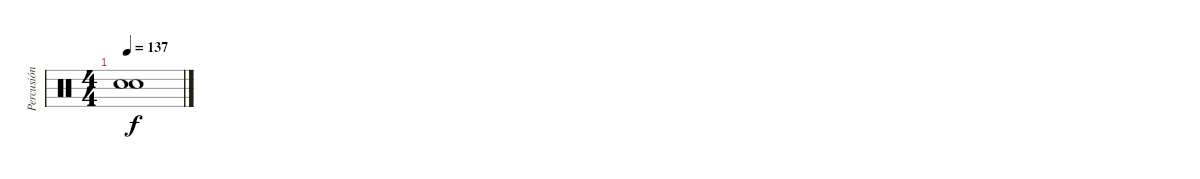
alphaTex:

\track ("Percusión" "Percusión") {instrument percussion}
\staff {score}
\articulation defaults
\ts (4 4)
\tempo 137
\clef neutral
\ks c
("Snare (hit)"{t} "Snare (hit)"{t}).1{dy f}
